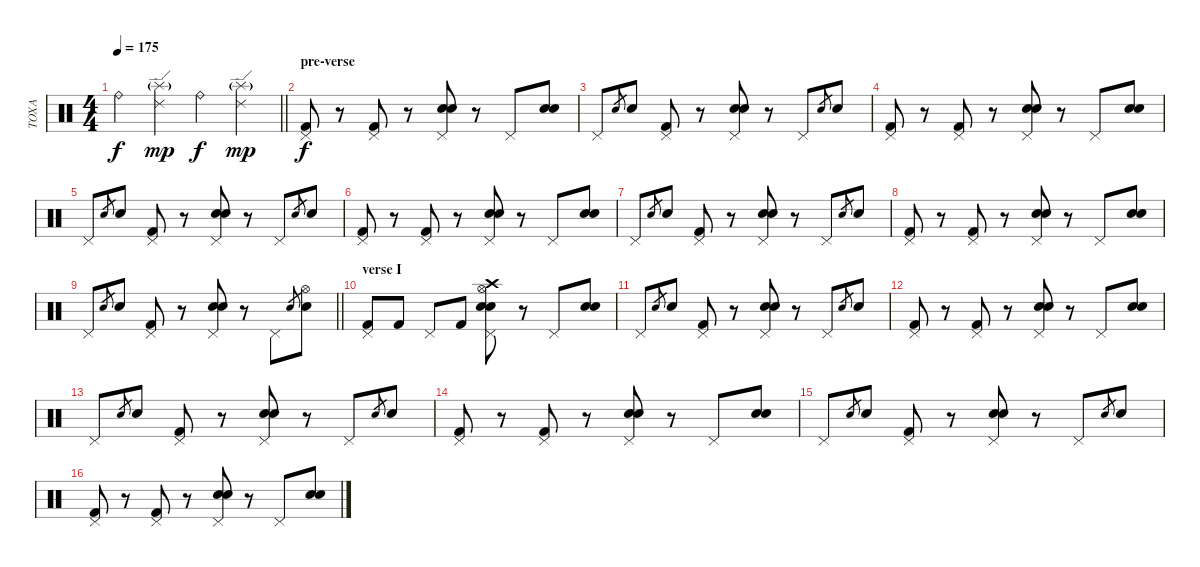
\track ("TOXA" "TOXA") {instrument percussion}
\staff {score}
\articulation defaults
\ts (4 4)
\tempo 175
\clef neutral
\barLineRight lightlight
\ks c "Ride (bell)".4{dy f}
("Ride (edge) 2" "Splash (hit)"{g}).4{dy mp} "Ride (bell)".4{dy f} ("Ride (edge) 2" "Splash (hit)"{g}).4{dy mp} |
\section ("" "pre-verse")
("Pedal Hi-Hat (hit)" "Kick (hit) 2").8{dy f} r.8 ("Pedal Hi-Hat (hit)" "Kick (hit) 2").8 r.8 ("Pedal Hi-Hat (hit)" "Electric Snare (hit)" "Snare (hit) 2").8 r.8 "Pedal Hi-Hat (hit)".8 ("Electric Snare (hit)" "Snare (hit) 2").8 |
"Pedal Hi-Hat (hit)".8 "Electric Snare (hit)".8{gr} "Electric Snare (hit)".8 ("Pedal Hi-Hat (hit)" "Kick (hit) 2").8 r.8 ("Pedal Hi-Hat (hit)" "Electric Snare (hit)" "Snare (hit) 2").8 r.8 "Pedal Hi-Hat (hit)".8 "Electric Snare (hit)".8{gr} "Electric Snare (hit)".8 |
("Pedal Hi-Hat (hit)" "Kick (hit) 2").8 r.8 ("Pedal Hi-Hat (hit)" "Kick (hit) 2").8 r.8 ("Pedal Hi-Hat (hit)" "Electric Snare (hit)" "Snare (hit) 2").8 r.8 "Pedal Hi-Hat (hit)".8 ("Electric Snare (hit)" "Snare (hit) 2").8 |
"Pedal Hi-Hat (hit)".8 "Electric Snare (hit)".8{gr} "Electric Snare (hit)".8 ("Pedal Hi-Hat (hit)" "Kick (hit) 2").8 r.8 ("Pedal Hi-Hat (hit)" "Electric Snare (hit)" "Snare (hit) 2").8 r.8 "Pedal Hi-Hat (hit)".8 "Electric Snare (hit)".8{gr} "Electric Snare (hit)".8 |
("Pedal Hi-Hat (hit)" "Kick (hit) 2").8 r.8 ("Pedal Hi-Hat (hit)" "Kick (hit) 2").8 r.8 ("Pedal Hi-Hat (hit)" "Electric Snare (hit)" "Snare (hit) 2").8 r.8 "Pedal Hi-Hat (hit)".8 ("Electric Snare (hit)" "Snare (hit) 2").8 |
"Pedal Hi-Hat (hit)".8 "Electric Snare (hit)".8{gr} "Electric Snare (hit)".8 ("Pedal Hi-Hat (hit)" "Kick (hit) 2").8 r.8 ("Pedal Hi-Hat (hit)" "Electric Snare (hit)" "Snare (hit) 2").8 r.8 "Pedal Hi-Hat (hit)".8 "Electric Snare (hit)".8{gr} "Electric Snare (hit)".8 |
("Pedal Hi-Hat (hit)" "Kick (hit) 2").8 r.8 ("Pedal Hi-Hat (hit)" "Kick (hit) 2").8 r.8 ("Pedal Hi-Hat (hit)" "Electric Snare (hit)" "Snare (hit) 2").8 r.8 "Pedal Hi-Hat (hit)".8 ("Electric Snare (hit)" "Snare (hit) 2").8 |
\barLineRight lightlight "Pedal Hi-Hat (hit)".8 "Electric Snare (hit)".8{gr} "Electric Snare (hit)".8
("Pedal Hi-Hat (hit)" "Kick (hit) 2").8 r.8 ("Pedal Hi-Hat (hit)" "Electric Snare (hit)" "Snare (hit) 2").8 r.8 "Pedal Hi-Hat (hit)".8 "Electric Snare (hit)".8{gr} ("Hi-Hat (open)" "Electric Snare (hit)").8 |
\section ("" "verse I")
("Pedal Hi-Hat (hit)" "Kick (hit) 2").8 "Kick (hit) 2".8 "Pedal Hi-Hat (hit)".8 "Kick (hit) 2".8 ("Hi-Hat (open)" "Pedal Hi-Hat (hit)" "Crash high (hit)" "Snare (hit) 2" "Electric Snare (hit)").8 r.8 "Pedal Hi-Hat (hit)".8 ("Electric Snare (hit)" "Snare (hit) 2").8 |
"Pedal Hi-Hat (hit)".8 "Electric Snare (hit)".8{gr} "Electric Snare (hit)".8 ("Pedal Hi-Hat (hit)" "Kick (hit) 2").8 r.8 ("Pedal Hi-Hat (hit)" "Electric Snare (hit)" "Snare (hit) 2").8 r.8 "Pedal Hi-Hat (hit)".8 "Electric Snare (hit)".8{gr} "Electric Snare (hit)".8 |
("Pedal Hi-Hat (hit)" "Kick (hit) 2").8 r.8 ("Pedal Hi-Hat (hit)" "Kick (hit) 2").8 r.8 ("Pedal Hi-Hat (hit)" "Electric Snare (hit)" "Snare (hit) 2").8 r.8 "Pedal Hi-Hat (hit)".8 ("Electric Snare (hit)" "Snare (hit) 2").8 |
"Pedal Hi-Hat (hit)".8 "Electric Snare (hit)".8{gr} "Electric Snare (hit)".8 ("Pedal Hi-Hat (hit)" "Kick (hit) 2").8 r.8 ("Pedal Hi-Hat (hit)" "Electric Snare (hit)" "Snare (hit) 2").8 r.8 "Pedal Hi-Hat (hit)".8 "Electric Snare (hit)".8{gr} "Electric Snare (hit)".8 |
("Pedal Hi-Hat (hit)" "Kick (hit) 2").8 r.8 ("Pedal Hi-Hat (hit)" "Kick (hit) 2").8 r.8 ("Pedal Hi-Hat (hit)" "Electric Snare (hit)" "Snare (hit) 2").8 r.8 "Pedal Hi-Hat (hit)".8 ("Electric Snare (hit)" "Snare (hit) 2").8 |
"Pedal Hi-Hat (hit)".8 "Electric Snare (hit)".8{gr} "Electric Snare (hit)".8 ("Pedal Hi-Hat (hit)" "Kick (hit) 2").8 r.8 ("Pedal Hi-Hat (hit)" "Electric Snare (hit)" "Snare (hit) 2").8 r.8 "Pedal Hi-Hat (hit)".8 "Electric Snare (hit)".8{gr} "Electric Snare (hit)".8 |
("Pedal Hi-Hat (hit)" "Kick (hit) 2").8 r.8 ("Pedal Hi-Hat (hit)" "Kick (hit) 2").8 r.8 ("Pedal Hi-Hat (hit)" "Electric Snare (hit)" "Snare (hit) 2").8 r.8 "Pedal Hi-Hat (hit)".8 ("Electric Snare (hit)" "Snare (hit) 2").8
